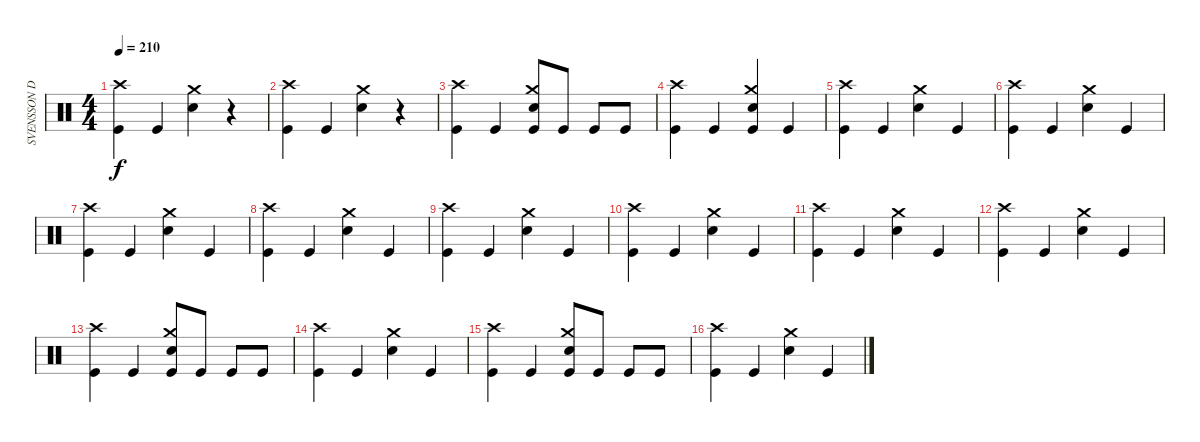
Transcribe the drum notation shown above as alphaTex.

\track ("SVENSSON DRUMS" "SVENSSON D") {instrument percussion}
\staff {score}
\articulation defaults
\ts (4 4)
\tempo 210
\clef neutral
\ks c
("Crash high (hit)" "Kick (hit)").4{dy f} "Kick (hit)".4 ("Crash medium (hit)" "Electric Snare (hit)").4 r.4 |
("Crash high (hit)" "Kick (hit)").4 "Kick (hit)".4 ("Crash medium (hit)" "Electric Snare (hit)").4 r.4 |
("Crash high (hit)" "Kick (hit)").4 "Kick (hit)".4 ("Crash medium (hit)" "Electric Snare (hit)" "Kick (hit)").8 "Kick (hit)".8 "Kick (hit)".8 "Kick (hit)".8 |
("Crash high (hit)" "Kick (hit)").4 "Kick (hit)".4 ("Crash medium (hit)" "Electric Snare (hit)" "Kick (hit)").4 "Kick (hit)".4 |
("Crash high (hit)" "Kick (hit)").4 "Kick (hit)".4 ("Crash medium (hit)" "Electric Snare (hit)").4 "Kick (hit)".4 |
("Crash high (hit)" "Kick (hit)").4 "Kick (hit)".4 ("Crash medium (hit)" "Electric Snare (hit)").4 "Kick (hit)".4 |
("Crash high (hit)" "Kick (hit)").4 "Kick (hit)".4 ("Crash medium (hit)" "Electric Snare (hit)").4 "Kick (hit)".4 |
("Crash high (hit)" "Kick (hit)").4 "Kick (hit)".4 ("Crash medium (hit)" "Electric Snare (hit)").4 "Kick (hit)".4 |
("Crash high (hit)" "Kick (hit)").4 "Kick (hit)".4 ("Crash medium (hit)" "Electric Snare (hit)").4 "Kick (hit)".4 |
("Crash high (hit)" "Kick (hit)").4 "Kick (hit)".4 ("Crash medium (hit)" "Electric Snare (hit)").4 "Kick (hit)".4 |
("Crash high (hit)" "Kick (hit)").4 "Kick (hit)".4 ("Crash medium (hit)" "Electric Snare (hit)").4 "Kick (hit)".4 |
("Crash high (hit)" "Kick (hit)").4 "Kick (hit)".4 ("Crash medium (hit)" "Electric Snare (hit)").4 "Kick (hit)".4 |
("Crash high (hit)" "Kick (hit)").4 "Kick (hit)".4 ("Crash medium (hit)" "Electric Snare (hit)" "Kick (hit)").8 "Kick (hit)".8 "Kick (hit)".8 "Kick (hit)".8 |
("Crash high (hit)" "Kick (hit)").4 "Kick (hit)".4 ("Crash medium (hit)" "Electric Snare (hit)").4 "Kick (hit)".4 |
("Crash high (hit)" "Kick (hit)").4 "Kick (hit)".4 ("Crash medium (hit)" "Electric Snare (hit)" "Kick (hit)").8 "Kick (hit)".8 "Kick (hit)".8 "Kick (hit)".8 |
("Crash high (hit)" "Kick (hit)").4 "Kick (hit)".4 ("Crash medium (hit)" "Electric Snare (hit)").4 "Kick (hit)".4
